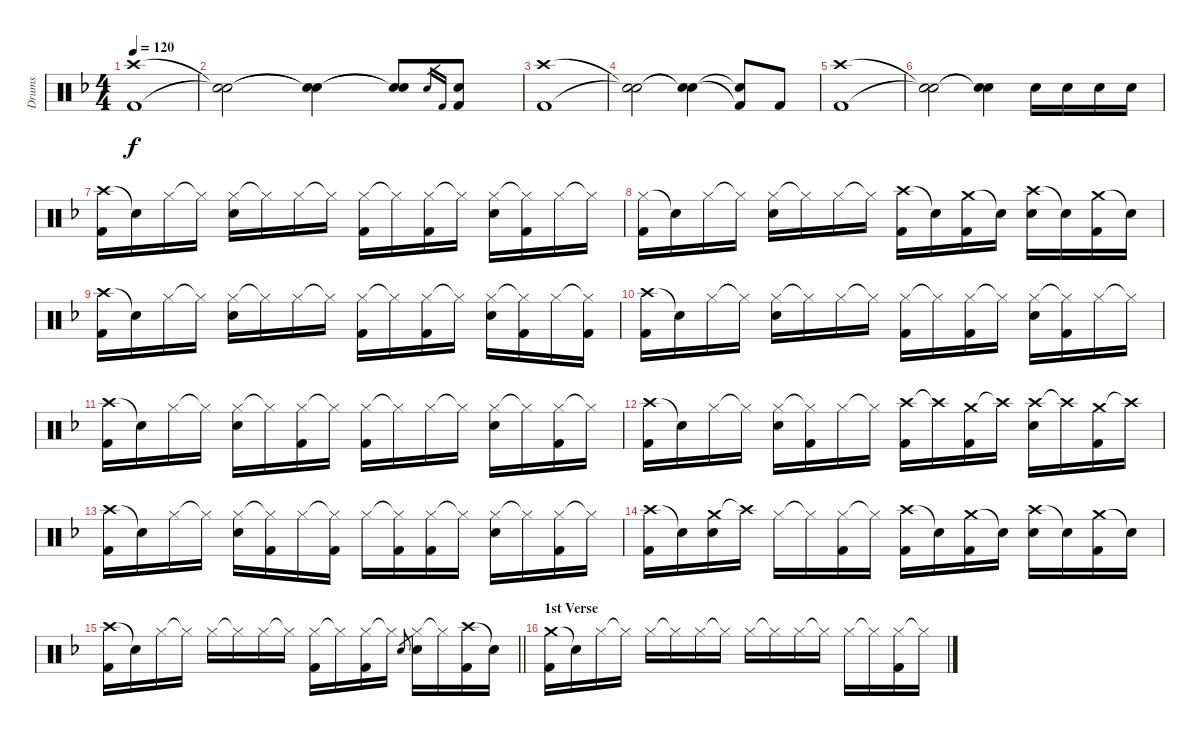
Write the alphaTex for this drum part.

\track ("Drums" "Drums") {instrument percussion}
\staff {score}
\articulation defaults
\ts (4 4)
\tempo 120
\clef neutral
\ks f
("Crash high (hit)" "Kick (hit) 2").1{dy f} |
("Snare (hit)"{t} "Snare (hit)"{t}).2 ("Snare (hit)"{t} "Snare (hit)"{t}).4 ("Snare (hit)"{t} "Snare (hit)"{t}).8 "Snare (hit) 2".16{gr} "Kick (hit) 2".16{gr} ("Snare (hit) 2" "Kick (hit) 2").8 |
("Crash high (hit)" "Kick (hit) 2").1 |
("Snare (hit)"{t} "Snare (hit)"{t}).2 ("Snare (hit)"{t} "Snare (hit)"{t}).4 ("Snare (hit)"{t} "Kick (hit) 2"{t}).8 "Kick (hit) 2".8 |
("Crash high (hit)" "Kick (hit) 2").1 |
("Snare (hit)"{t} "Snare (hit)"{t}).2 ("Snare (hit)"{t} "Snare (hit)"{t}).4 "Snare (hit) 2".16 "Snare (hit) 2".16 "Snare (hit) 2".16 "Snare (hit) 2".16 |
("Crash high (hit)" "Kick (hit) 2").16 "Snare (hit)"{t}.16 "Hi-Hat (closed)".16 "Hi-Hat (closed)"{t}.16 ("Hi-Hat (closed)" "Snare (hit) 2").16 "Hi-Hat (closed)"{t}.16 "Hi-Hat (closed)".16 "Hi-Hat (closed)"{t}.16 ("Hi-Hat (closed)" "Kick (hit) 2").16 "Hi-Hat (closed)"{t}.16 ("Hi-Hat (closed)" "Kick (hit) 2").16 "Hi-Hat (closed)"{t}.16 ("Hi-Hat (closed)" "Snare (hit) 2").16 ("Hi-Hat (closed)"{t} "Kick (hit) 2").16 "Hi-Hat (closed)".16 "Hi-Hat (closed)"{t}.16 |
("Hi-Hat (closed)" "Kick (hit) 2").16 "Snare (hit)"{t}.16 "Hi-Hat (closed)".16 "Hi-Hat (closed)"{t}.16 ("Hi-Hat (closed)" "Snare (hit) 2").16 "Hi-Hat (closed)"{t}.16 "Hi-Hat (closed)".16 "Hi-Hat (closed)"{t}.16 ("Crash high (hit)" "Kick (hit) 2").16 "Snare (hit)"{t}.16 ("Crash medium (hit)" "Kick (hit) 2").16 "Snare (hit)"{t}.16 ("Crash high (hit)" "Snare (hit) 2").16 "Snare (hit)"{t}.16 ("Crash medium (hit)" "Kick (hit) 2").16 "Snare (hit)"{t}.16 |
("Crash high (hit)" "Kick (hit) 2").16 "Snare (hit)"{t}.16 "Hi-Hat (closed)".16 "Hi-Hat (closed)"{t}.16 ("Hi-Hat (closed)" "Snare (hit) 2").16 "Hi-Hat (closed)"{t}.16 "Hi-Hat (closed)".16 "Hi-Hat (closed)"{t}.16 ("Hi-Hat (closed)" "Kick (hit) 2").16 "Hi-Hat (closed)"{t}.16 ("Hi-Hat (closed)" "Kick (hit) 2").16 "Hi-Hat (closed)"{t}.16 ("Hi-Hat (closed)" "Snare (hit) 2").16 ("Hi-Hat (closed)"{t} "Kick (hit) 2").16 "Hi-Hat (closed)".16 ("Hi-Hat (closed)"{t} "Kick (hit) 2").16 |
("Crash high (hit)" "Kick (hit) 2").16 "Snare (hit)"{t}.16 "Hi-Hat (closed)".16 "Hi-Hat (closed)"{t}.16 ("Hi-Hat (closed)" "Snare (hit) 2").16 "Hi-Hat (closed)"{t}.16 "Hi-Hat (closed)".16 "Hi-Hat (closed)"{t}.16 ("Hi-Hat (closed)" "Kick (hit) 2").16 "Hi-Hat (closed)"{t}.16 ("Hi-Hat (closed)" "Kick (hit) 2").16 "Hi-Hat (closed)"{t}.16 ("Hi-Hat (closed)" "Snare (hit) 2").16 ("Hi-Hat (closed)"{t} "Kick (hit) 2").16 "Hi-Hat (closed)".16 "Hi-Hat (closed)"{t}.16 |
("Crash high (hit)" "Kick (hit) 2").16 "Snare (hit)"{t}.16 "Hi-Hat (closed)".16 "Hi-Hat (closed)"{t}.16 ("Hi-Hat (closed)" "Snare (hit) 2").16 "Hi-Hat (closed)"{t}.16 ("Hi-Hat (closed)" "Kick (hit) 2").16 "Hi-Hat (closed)"{t}.16 ("Hi-Hat (closed)" "Kick (hit) 2").16 "Hi-Hat (closed)"{t}.16 "Hi-Hat (closed)".16 "Hi-Hat (closed)"{t}.16 ("Hi-Hat (closed)" "Snare (hit) 2").16 "Hi-Hat (closed)"{t}.16 ("Hi-Hat (closed)" "Kick (hit) 2").16 "Hi-Hat (closed)"{t}.16 |
("Crash high (hit)" "Kick (hit) 2").16 "Snare (hit)"{t}.16 "Hi-Hat (closed)".16 "Hi-Hat (closed)"{t}.16 ("Hi-Hat (closed)" "Snare (hit) 2").16 ("Hi-Hat (closed)"{t} "Kick (hit) 2").16 "Hi-Hat (closed)".16 "Hi-Hat (closed)"{t}.16 ("Crash high (hit)" "Kick (hit) 2").16 "Crash high (hit)"{t}.16 ("Crash medium (hit)" "Kick (hit) 2").16 "Crash high (hit)"{t}.16 ("Crash high (hit)" "Snare (hit) 2").16 "Crash high (hit)"{t}.16 ("Crash medium (hit)" "Kick (hit) 2").16 "Crash high (hit)"{t}.16 |
("Crash high (hit)" "Kick (hit) 2").16 "Snare (hit)"{t}.16 "Hi-Hat (closed)".16 "Hi-Hat (closed)"{t}.16 ("Hi-Hat (closed)" "Snare (hit) 2").16 ("Hi-Hat (closed)"{t} "Kick (hit) 2").16 "Hi-Hat (closed)".16 ("Hi-Hat (closed)"{t} "Kick (hit) 2").16 "Hi-Hat (closed)".16 ("Hi-Hat (closed)"{t} "Kick (hit) 2").16 ("Hi-Hat (closed)" "Kick (hit) 2").16 "Hi-Hat (closed)"{t}.16 ("Hi-Hat (closed)" "Snare (hit) 2").16 "Hi-Hat (closed)"{t}.16 ("Hi-Hat (closed)" "Kick (hit) 2").16 "Hi-Hat (closed)"{t}.16 |
("Crash high (hit)" "Kick (hit) 2").16 "Snare (hit)"{t}.16 ("Crash medium (hit)" "Snare (hit) 2").16 "Crash high (hit)"{t}.16 "Hi-Hat (closed)".16 "Hi-Hat (closed)"{t}.16 ("Hi-Hat (closed)" "Kick (hit) 2").16 "Hi-Hat (closed)"{t}.16 ("Crash high (hit)" "Kick (hit) 2").16 "Snare (hit)"{t}.16 ("Crash medium (hit)" "Kick (hit) 2").16 "Snare (hit)"{t}.16 ("Crash high (hit)" "Snare (hit) 2").16 "Snare (hit)"{t}.16 ("Crash medium (hit)" "Kick (hit) 2").16 "Snare (hit)"{t}.16 |
\barLineRight lightlight
("Crash high (hit)" "Kick (hit) 2").16 "Snare (hit)"{t}.16 "Hi-Hat (closed)".16 "Hi-Hat (closed)"{t}.16 "Hi-Hat (closed)".16 "Hi-Hat (closed)"{t}.16 "Hi-Hat (closed)".16 "Hi-Hat (closed)"{t}.16 ("Hi-Hat (closed)" "Kick (hit) 2").16 "Hi-Hat (closed)"{t}.16 ("Hi-Hat (closed)" "Kick (hit) 2").16 "Hi-Hat (closed)"{t}.16 "Snare (hit) 2".8{gr} ("Hi-Hat (closed)" "Snare (hit) 2").16 "Hi-Hat (closed)"{t}.16 ("Crash high (hit)" "Kick (hit) 2").16 "Snare (hit)"{t}.16 |
\section ("" "1st Verse")
("Crash medium (hit)" "Kick (hit) 2").16 "Snare (hit)"{t}.16 "Hi-Hat (closed)".16 "Hi-Hat (closed)"{t}.16 "Hi-Hat (closed)".16 "Hi-Hat (closed)"{t}.16 "Hi-Hat (closed)".16 "Hi-Hat (closed)"{t}.16 "Hi-Hat (closed)".16 "Hi-Hat (closed)"{t}.16 "Hi-Hat (closed)".16 "Hi-Hat (closed)"{t}.16 "Hi-Hat (closed)".16 "Hi-Hat (closed)"{t}.16 ("Hi-Hat (closed)" "Kick (hit) 2").16 "Hi-Hat (closed)"{t}.16
